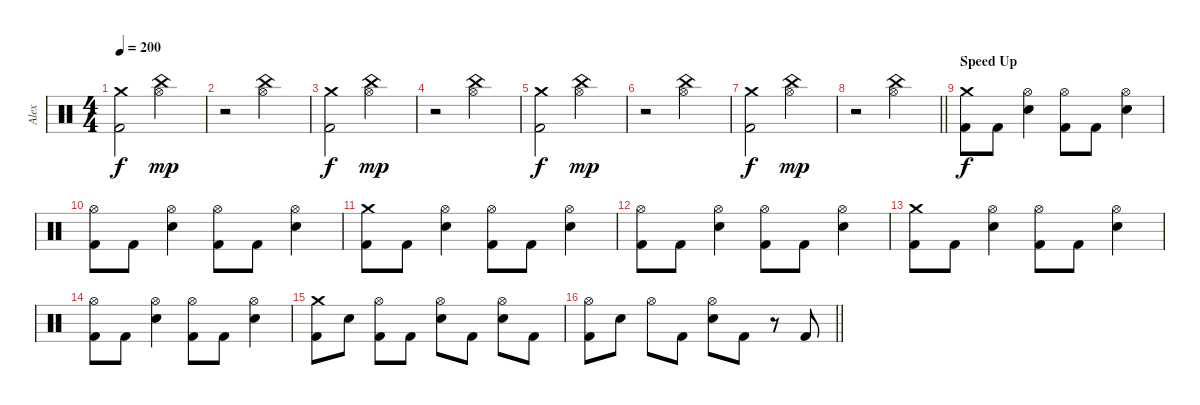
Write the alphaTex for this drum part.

\track ("Alex" "Alex") {instrument percussion}
\staff {score}
\articulation defaults
\ts (4 4)
\tempo 200
\clef neutral
\ks c
("Crash medium (hit)" "Kick (hit) 2").2{dy f} ("China (hit)" "Hi-Hat (open)").2{dy mp} |
r.2 ("China (hit)" "Hi-Hat (open)").2 |
("Crash medium (hit)" "Kick (hit) 2").2{dy f} ("China (hit)" "Hi-Hat (open)").2{dy mp} |
r.2 ("China (hit)" "Hi-Hat (open)").2 |
("Crash medium (hit)" "Kick (hit) 2").2{dy f} ("China (hit)" "Hi-Hat (open)").2{dy mp} |
r.2 ("China (hit)" "Hi-Hat (open)").2 |
("Crash medium (hit)" "Kick (hit) 2").2{dy f} ("China (hit)" "Hi-Hat (open)").2{dy mp} |
\barLineRight lightlight
r.2 ("China (hit)" "Hi-Hat (open)").2 |
\section ("" "Speed Up")
("Crash medium (hit)" "Kick (hit) 2").8{dy f} "Kick (hit) 2".8 ("Hi-Hat (open)" "Electric Snare (hit)").4 ("Hi-Hat (open)" "Kick (hit) 2").8 "Kick (hit) 2".8 ("Hi-Hat (open)" "Electric Snare (hit)").4 |
("Hi-Hat (open)" "Kick (hit) 2").8 "Kick (hit) 2".8 ("Hi-Hat (open)" "Electric Snare (hit)").4 ("Hi-Hat (open)" "Kick (hit) 2").8 "Kick (hit) 2".8 ("Hi-Hat (open)" "Electric Snare (hit)").4 |
("Crash medium (hit)" "Kick (hit) 2").8 "Kick (hit) 2".8 ("Hi-Hat (open)" "Electric Snare (hit)").4 ("Hi-Hat (open)" "Kick (hit) 2").8 "Kick (hit) 2".8 ("Hi-Hat (open)" "Electric Snare (hit)").4 |
("Hi-Hat (open)" "Kick (hit) 2").8 "Kick (hit) 2".8 ("Hi-Hat (open)" "Electric Snare (hit)").4 ("Hi-Hat (open)" "Kick (hit) 2").8 "Kick (hit) 2".8 ("Hi-Hat (open)" "Electric Snare (hit)").4 |
("Crash medium (hit)" "Kick (hit) 2").8 "Kick (hit) 2".8 ("Hi-Hat (open)" "Electric Snare (hit)").4 ("Hi-Hat (open)" "Kick (hit) 2").8 "Kick (hit) 2".8 ("Hi-Hat (open)" "Electric Snare (hit)").4 |
("Hi-Hat (open)" "Kick (hit) 2").8 "Kick (hit) 2".8 ("Hi-Hat (open)" "Electric Snare (hit)").4 ("Hi-Hat (open)" "Kick (hit) 2").8 "Kick (hit) 2".8 ("Hi-Hat (open)" "Electric Snare (hit)").4 |
("Crash medium (hit)" "Kick (hit) 2").8 "Electric Snare (hit)".8 ("Hi-Hat (open)" "Kick (hit) 2").8 "Kick (hit) 2".8 ("Hi-Hat (open)" "Electric Snare (hit)").8 "Kick (hit) 2".8 ("Hi-Hat (open)" "Electric Snare (hit)").8 "Kick (hit) 2".8 |
\barLineRight lightlight
("Hi-Hat (open)" "Kick (hit) 2").8 "Electric Snare (hit)".8 "Hi-Hat (open)".8 "Kick (hit) 2".8 ("Hi-Hat (open)" "Electric Snare (hit)").8 "Kick (hit) 2".8 r.8 "Kick (hit) 2".8
